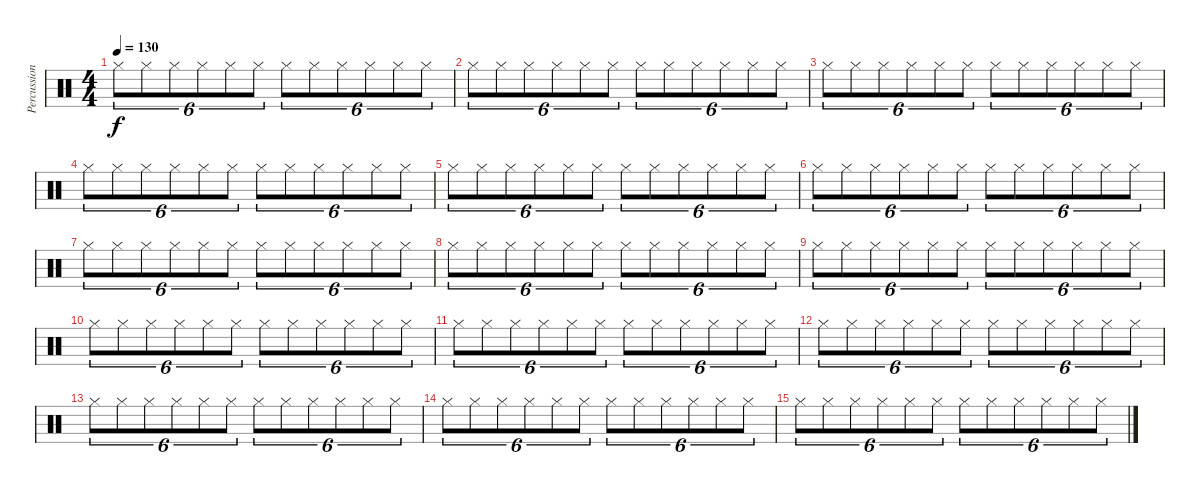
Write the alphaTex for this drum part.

\track ("Percussion" "Percussion") {instrument percussion bank 177}
\staff {score}
\articulation defaults
\ts (4 4)
\tempo 130
\clef neutral
\ks c "Hi-Hat (closed)".8{tu (6 4) dy f} "Hi-Hat (closed)".8{tu (6 4)} "Hi-Hat (closed)".8{tu (6 4)} "Hi-Hat (closed)".8{tu (6 4)} "Hi-Hat (closed)".8{tu (6 4)} "Hi-Hat (closed)".8{tu (6 4)} "Hi-Hat (closed)".8{tu (6 4)} "Hi-Hat (closed)".8{tu (6 4)} "Hi-Hat (closed)".8{tu (6 4)} "Hi-Hat (closed)".8{tu (6 4)} "Hi-Hat (closed)".8{tu (6 4)} "Hi-Hat (closed)".8{tu (6 4)}
|
"Hi-Hat (closed)".8{tu (6 4)} "Hi-Hat (closed)".8{tu (6 4)} "Hi-Hat (closed)".8{tu (6 4)} "Hi-Hat (closed)".8{tu (6 4)} "Hi-Hat (closed)".8{tu (6 4)} "Hi-Hat (closed)".8{tu (6 4)} "Hi-Hat (closed)".8{tu (6 4)} "Hi-Hat (closed)".8{tu (6 4)} "Hi-Hat (closed)".8{tu (6 4)} "Hi-Hat (closed)".8{tu (6 4)} "Hi-Hat (closed)".8{tu (6 4)} "Hi-Hat (closed)".8{tu (6 4)} |
"Hi-Hat (closed)".8{tu (6 4)} "Hi-Hat (closed)".8{tu (6 4)} "Hi-Hat (closed)".8{tu (6 4)} "Hi-Hat (closed)".8{tu (6 4)} "Hi-Hat (closed)".8{tu (6 4)} "Hi-Hat (closed)".8{tu (6 4)} "Hi-Hat (closed)".8{tu (6 4)} "Hi-Hat (closed)".8{tu (6 4)} "Hi-Hat (closed)".8{tu (6 4)} "Hi-Hat (closed)".8{tu (6 4)} "Hi-Hat (closed)".8{tu (6 4)} "Hi-Hat (closed)".8{tu (6 4)} |
"Hi-Hat (closed)".8{tu (6 4)} "Hi-Hat (closed)".8{tu (6 4)} "Hi-Hat (closed)".8{tu (6 4)} "Hi-Hat (closed)".8{tu (6 4)} "Hi-Hat (closed)".8{tu (6 4)} "Hi-Hat (closed)".8{tu (6 4)} "Hi-Hat (closed)".8{tu (6 4)} "Hi-Hat (closed)".8{tu (6 4)} "Hi-Hat (closed)".8{tu (6 4)} "Hi-Hat (closed)".8{tu (6 4)} "Hi-Hat (closed)".8{tu (6 4)} "Hi-Hat (closed)".8{tu (6 4)} |
"Hi-Hat (closed)".8{tu (6 4)} "Hi-Hat (closed)".8{tu (6 4)} "Hi-Hat (closed)".8{tu (6 4)} "Hi-Hat (closed)".8{tu (6 4)} "Hi-Hat (closed)".8{tu (6 4)} "Hi-Hat (closed)".8{tu (6 4)} "Hi-Hat (closed)".8{tu (6 4)} "Hi-Hat (closed)".8{tu (6 4)} "Hi-Hat (closed)".8{tu (6 4)} "Hi-Hat (closed)".8{tu (6 4)} "Hi-Hat (closed)".8{tu (6 4)} "Hi-Hat (closed)".8{tu (6 4)} |
"Hi-Hat (closed)".8{tu (6 4)} "Hi-Hat (closed)".8{tu (6 4)} "Hi-Hat (closed)".8{tu (6 4)} "Hi-Hat (closed)".8{tu (6 4)} "Hi-Hat (closed)".8{tu (6 4)} "Hi-Hat (closed)".8{tu (6 4)} "Hi-Hat (closed)".8{tu (6 4)} "Hi-Hat (closed)".8{tu (6 4)} "Hi-Hat (closed)".8{tu (6 4)} "Hi-Hat (closed)".8{tu (6 4)} "Hi-Hat (closed)".8{tu (6 4)} "Hi-Hat (closed)".8{tu (6 4)} |
"Hi-Hat (closed)".8{tu (6 4)} "Hi-Hat (closed)".8{tu (6 4)} "Hi-Hat (closed)".8{tu (6 4)} "Hi-Hat (closed)".8{tu (6 4)} "Hi-Hat (closed)".8{tu (6 4)} "Hi-Hat (closed)".8{tu (6 4)} "Hi-Hat (closed)".8{tu (6 4)} "Hi-Hat (closed)".8{tu (6 4)} "Hi-Hat (closed)".8{tu (6 4)} "Hi-Hat (closed)".8{tu (6 4)} "Hi-Hat (closed)".8{tu (6 4)} "Hi-Hat (closed)".8{tu (6 4)} |
"Hi-Hat (closed)".8{tu (6 4)} "Hi-Hat (closed)".8{tu (6 4)} "Hi-Hat (closed)".8{tu (6 4)} "Hi-Hat (closed)".8{tu (6 4)} "Hi-Hat (closed)".8{tu (6 4)} "Hi-Hat (closed)".8{tu (6 4)} "Hi-Hat (closed)".8{tu (6 4)} "Hi-Hat (closed)".8{tu (6 4)} "Hi-Hat (closed)".8{tu (6 4)} "Hi-Hat (closed)".8{tu (6 4)} "Hi-Hat (closed)".8{tu (6 4)} "Hi-Hat (closed)".8{tu (6 4)} |
"Hi-Hat (closed)".8{tu (6 4)} "Hi-Hat (closed)".8{tu (6 4)} "Hi-Hat (closed)".8{tu (6 4)} "Hi-Hat (closed)".8{tu (6 4)} "Hi-Hat (closed)".8{tu (6 4)} "Hi-Hat (closed)".8{tu (6 4)} "Hi-Hat (closed)".8{tu (6 4)} "Hi-Hat (closed)".8{tu (6 4)} "Hi-Hat (closed)".8{tu (6 4)} "Hi-Hat (closed)".8{tu (6 4)} "Hi-Hat (closed)".8{tu (6 4)} "Hi-Hat (closed)".8{tu (6 4)} |
"Hi-Hat (closed)".8{tu (6 4)} "Hi-Hat (closed)".8{tu (6 4)} "Hi-Hat (closed)".8{tu (6 4)} "Hi-Hat (closed)".8{tu (6 4)} "Hi-Hat (closed)".8{tu (6 4)} "Hi-Hat (closed)".8{tu (6 4)} "Hi-Hat (closed)".8{tu (6 4)} "Hi-Hat (closed)".8{tu (6 4)} "Hi-Hat (closed)".8{tu (6 4)} "Hi-Hat (closed)".8{tu (6 4)} "Hi-Hat (closed)".8{tu (6 4)} "Hi-Hat (closed)".8{tu (6 4)} |
"Hi-Hat (closed)".8{tu (6 4)} "Hi-Hat (closed)".8{tu (6 4)} "Hi-Hat (closed)".8{tu (6 4)} "Hi-Hat (closed)".8{tu (6 4)} "Hi-Hat (closed)".8{tu (6 4)} "Hi-Hat (closed)".8{tu (6 4)} "Hi-Hat (closed)".8{tu (6 4)} "Hi-Hat (closed)".8{tu (6 4)} "Hi-Hat (closed)".8{tu (6 4)} "Hi-Hat (closed)".8{tu (6 4)} "Hi-Hat (closed)".8{tu (6 4)} "Hi-Hat (closed)".8{tu (6 4)} |
"Hi-Hat (closed)".8{tu (6 4)} "Hi-Hat (closed)".8{tu (6 4)} "Hi-Hat (closed)".8{tu (6 4)} "Hi-Hat (closed)".8{tu (6 4)} "Hi-Hat (closed)".8{tu (6 4)} "Hi-Hat (closed)".8{tu (6 4)} "Hi-Hat (closed)".8{tu (6 4)} "Hi-Hat (closed)".8{tu (6 4)} "Hi-Hat (closed)".8{tu (6 4)} "Hi-Hat (closed)".8{tu (6 4)} "Hi-Hat (closed)".8{tu (6 4)} "Hi-Hat (closed)".8{tu (6 4)} |
"Hi-Hat (closed)".8{tu (6 4)} "Hi-Hat (closed)".8{tu (6 4)} "Hi-Hat (closed)".8{tu (6 4)} "Hi-Hat (closed)".8{tu (6 4)} "Hi-Hat (closed)".8{tu (6 4)} "Hi-Hat (closed)".8{tu (6 4)} "Hi-Hat (closed)".8{tu (6 4)} "Hi-Hat (closed)".8{tu (6 4)} "Hi-Hat (closed)".8{tu (6 4)} "Hi-Hat (closed)".8{tu (6 4)} "Hi-Hat (closed)".8{tu (6 4)} "Hi-Hat (closed)".8{tu (6 4)} |
"Hi-Hat (closed)".8{tu (6 4)} "Hi-Hat (closed)".8{tu (6 4)} "Hi-Hat (closed)".8{tu (6 4)} "Hi-Hat (closed)".8{tu (6 4)} "Hi-Hat (closed)".8{tu (6 4)} "Hi-Hat (closed)".8{tu (6 4)} "Hi-Hat (closed)".8{tu (6 4)} "Hi-Hat (closed)".8{tu (6 4)} "Hi-Hat (closed)".8{tu (6 4)} "Hi-Hat (closed)".8{tu (6 4)} "Hi-Hat (closed)".8{tu (6 4)} "Hi-Hat (closed)".8{tu (6 4)} |
"Hi-Hat (closed)".8{tu (6 4)} "Hi-Hat (closed)".8{tu (6 4)} "Hi-Hat (closed)".8{tu (6 4)} "Hi-Hat (closed)".8{tu (6 4)} "Hi-Hat (closed)".8{tu (6 4)} "Hi-Hat (closed)".8{tu (6 4)} "Hi-Hat (closed)".8{tu (6 4)} "Hi-Hat (closed)".8{tu (6 4)} "Hi-Hat (closed)".8{tu (6 4)} "Hi-Hat (closed)".8{tu (6 4)} "Hi-Hat (closed)".8{tu (6 4)} "Hi-Hat (closed)".8{tu (6 4)}
